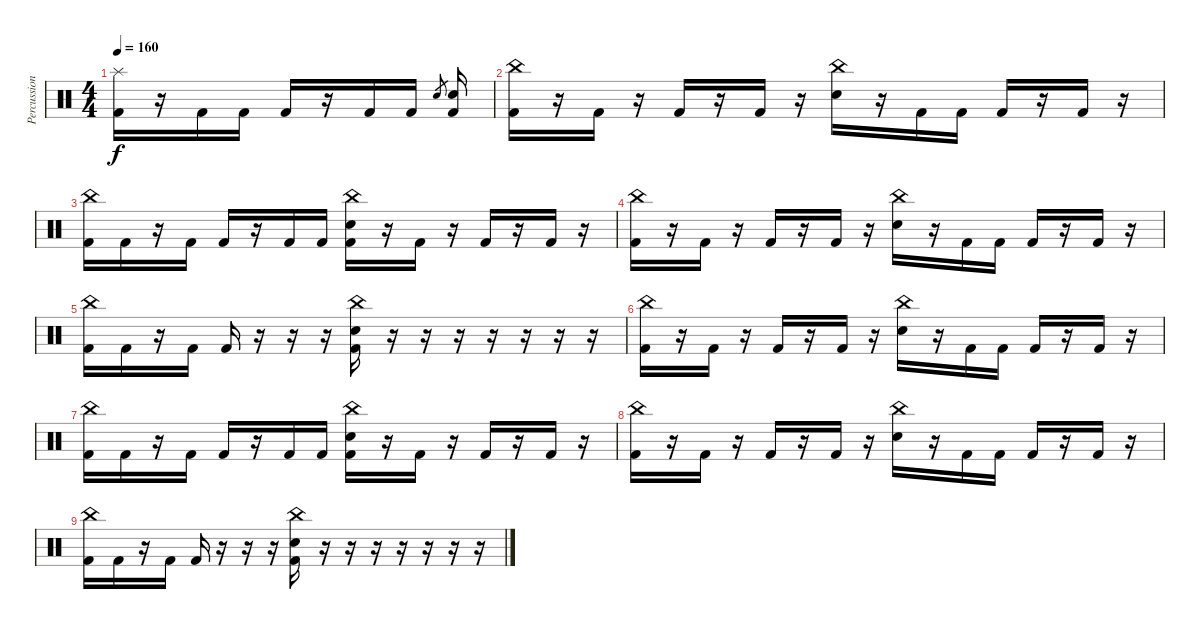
\track ("Percussion" "Percussion") {instrument percussion}
\staff {score}
\articulation defaults
\ts (4 4)
\tempo 160
\clef neutral
\ks c
("Splash (hit)" "Kick (hit) 2").16{dy f} r.16 "Kick (hit) 2".16 "Kick (hit) 2".16 "Kick (hit) 2".16 r.16 "Kick (hit) 2".16 "Kick (hit) 2".16 "Electric Snare (hit)".8{gr} ("Electric Snare (hit)" "Kick (hit) 2").16 |
("China (hit)" "Kick (hit) 2").16 r.16 "Kick (hit) 2".16 r.16 "Kick (hit) 2".16 r.16 "Kick (hit) 2".16 r.16 ("China (hit)" "Electric Snare (hit)").16 r.16 "Kick (hit) 2".16 "Kick (hit) 2".16 "Kick (hit) 2".16 r.16 "Kick (hit) 2".16 r.16 |
("China (hit)" "Kick (hit) 2").16 "Kick (hit) 2".16 r.16 "Kick (hit) 2".16 "Kick (hit) 2".16 r.16 "Kick (hit) 2".16 "Kick (hit) 2".16 ("China (hit)" "Electric Snare (hit)" "Kick (hit) 2").16 r.16 "Kick (hit) 2".16 r.16 "Kick (hit) 2".16 r.16 "Kick (hit) 2".16 r.16 |
("China (hit)" "Kick (hit) 2").16 r.16 "Kick (hit) 2".16 r.16 "Kick (hit) 2".16 r.16 "Kick (hit) 2".16 r.16 ("China (hit)" "Electric Snare (hit)").16 r.16 "Kick (hit) 2".16 "Kick (hit) 2".16 "Kick (hit) 2".16 r.16 "Kick (hit) 2".16 r.16 |
("China (hit)" "Kick (hit) 2").16 "Kick (hit) 2".16 r.16 "Kick (hit) 2".16 "Kick (hit) 2".16 r.16 r.16 r.16 ("China (hit)" "Electric Snare (hit)" "Kick (hit) 2").16 r.16 r.16 r.16 r.16 r.16 r.16 r.16 |
("China (hit)" "Kick (hit) 2").16 r.16 "Kick (hit) 2".16 r.16 "Kick (hit) 2".16 r.16 "Kick (hit) 2".16 r.16 ("China (hit)" "Electric Snare (hit)").16 r.16 "Kick (hit) 2".16 "Kick (hit) 2".16 "Kick (hit) 2".16 r.16 "Kick (hit) 2".16 r.16 |
("China (hit)" "Kick (hit) 2").16 "Kick (hit) 2".16 r.16 "Kick (hit) 2".16 "Kick (hit) 2".16 r.16 "Kick (hit) 2".16 "Kick (hit) 2".16 ("China (hit)" "Electric Snare (hit)" "Kick (hit) 2").16 r.16 "Kick (hit) 2".16 r.16 "Kick (hit) 2".16 r.16 "Kick (hit) 2".16 r.16 |
("China (hit)" "Kick (hit) 2").16 r.16 "Kick (hit) 2".16 r.16 "Kick (hit) 2".16 r.16 "Kick (hit) 2".16 r.16 ("China (hit)" "Electric Snare (hit)").16 r.16 "Kick (hit) 2".16 "Kick (hit) 2".16 "Kick (hit) 2".16 r.16 "Kick (hit) 2".16 r.16 |
("China (hit)" "Kick (hit) 2").16 "Kick (hit) 2".16 r.16 "Kick (hit) 2".16 "Kick (hit) 2".16 r.16 r.16 r.16 ("China (hit)" "Electric Snare (hit)" "Kick (hit) 2").16 r.16 r.16 r.16 r.16 r.16 r.16 r.16
